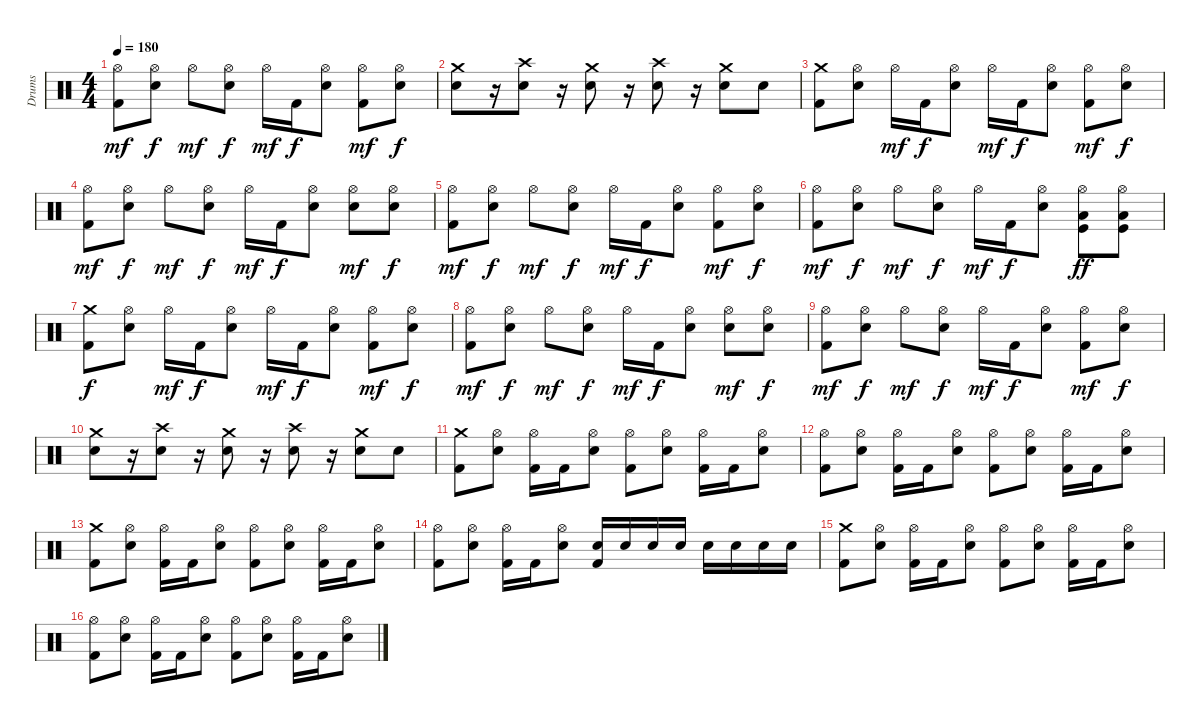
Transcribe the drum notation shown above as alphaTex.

\track ("Drums" "Drums") {instrument percussion}
\staff {score}
\articulation defaults
\ts (4 4)
\tempo 180
\clef neutral
\ks c
("Hi-Hat (open)" "Kick (hit) 2").8{dy mf} ("Hi-Hat (open)" "Electric Snare (hit)").8{dy f} "Hi-Hat (open)".8{dy mf} ("Hi-Hat (open)" "Electric Snare (hit)").8{dy f} "Hi-Hat (open)".16{dy mf} "Kick (hit) 2".16{dy f} ("Hi-Hat (open)" "Electric Snare (hit)").8 ("Hi-Hat (open)" "Kick (hit) 2").8{dy mf} ("Hi-Hat (open)" "Electric Snare (hit)").8{dy f} |
("Crash medium (hit)" "Electric Snare (hit)").8 r.16 ("Crash high (hit)" "Electric Snare (hit)").8 r.16 ("Crash medium (hit)" "Electric Snare (hit)").8 r.16 ("Crash high (hit)" "Electric Snare (hit)").8 r.16 ("Crash medium (hit)" "Electric Snare (hit)").8 "Electric Snare (hit)".8 |
("Crash medium (hit)" "Kick (hit) 2").8 ("Hi-Hat (open)" "Electric Snare (hit)").8 "Hi-Hat (open)".16{dy mf} "Kick (hit) 2".16{dy f} ("Hi-Hat (open)" "Electric Snare (hit)").8 "Hi-Hat (open)".16{dy mf} "Kick (hit) 2".16{dy f} ("Hi-Hat (open)" "Electric Snare (hit)").8 ("Hi-Hat (open)" "Kick (hit) 2").8{dy mf} ("Hi-Hat (open)" "Electric Snare (hit)").8{dy f} |
("Hi-Hat (open)" "Kick (hit) 2").8{dy mf} ("Hi-Hat (open)" "Electric Snare (hit)").8{dy f} "Hi-Hat (open)".8{dy mf} ("Hi-Hat (open)" "Electric Snare (hit)").8{dy f} "Hi-Hat (open)".16{dy mf} "Kick (hit) 2".16{dy f} ("Hi-Hat (open)" "Electric Snare (hit)").8 ("Hi-Hat (open)" "Electric Snare (hit)").8{dy mf} ("Hi-Hat (open)" "Electric Snare (hit)").8{dy f} |
("Hi-Hat (open)" "Kick (hit) 2").8{dy mf} ("Hi-Hat (open)" "Electric Snare (hit)").8{dy f} "Hi-Hat (open)".8{dy mf} ("Hi-Hat (open)" "Electric Snare (hit)").8{dy f} "Hi-Hat (open)".16{dy mf} "Kick (hit) 2".16{dy f} ("Hi-Hat (open)" "Electric Snare (hit)").8 ("Hi-Hat (open)" "Kick (hit) 2").8{dy mf} ("Hi-Hat (open)" "Electric Snare (hit)").8{dy f} |
("Hi-Hat (open)" "Kick (hit) 2").8{dy mf} ("Hi-Hat (open)" "Electric Snare (hit)").8{dy f} "Hi-Hat (open)".8{dy mf} ("Hi-Hat (open)" "Electric Snare (hit)").8{dy f} "Hi-Hat (open)".16{dy mf} "Kick (hit) 2".16{dy f} ("Hi-Hat (open)" "Electric Snare (hit)").8 ("Hi-Hat (open)" "Low Tom (hit)" "Kick (hit)").8{dy ff} ("Hi-Hat (open)" "Low Tom (hit)" "Kick (hit)").8 |
("Crash medium (hit)" "Kick (hit) 2").8{dy f} ("Hi-Hat (open)" "Electric Snare (hit)").8 "Hi-Hat (open)".16{dy mf} "Kick (hit) 2".16{dy f} ("Hi-Hat (open)" "Electric Snare (hit)").8 "Hi-Hat (open)".16{dy mf} "Kick (hit) 2".16{dy f} ("Hi-Hat (open)" "Electric Snare (hit)").8 ("Hi-Hat (open)" "Kick (hit) 2").8{dy mf} ("Hi-Hat (open)" "Electric Snare (hit)").8{dy f} |
("Hi-Hat (open)" "Kick (hit) 2").8{dy mf} ("Hi-Hat (open)" "Electric Snare (hit)").8{dy f} "Hi-Hat (open)".8{dy mf} ("Hi-Hat (open)" "Electric Snare (hit)").8{dy f} "Hi-Hat (open)".16{dy mf} "Kick (hit) 2".16{dy f} ("Hi-Hat (open)" "Electric Snare (hit)").8 ("Hi-Hat (open)" "Electric Snare (hit)").8{dy mf} ("Hi-Hat (open)" "Electric Snare (hit)").8{dy f} |
("Hi-Hat (open)" "Kick (hit) 2").8{dy mf} ("Hi-Hat (open)" "Electric Snare (hit)").8{dy f} "Hi-Hat (open)".8{dy mf} ("Hi-Hat (open)" "Electric Snare (hit)").8{dy f} "Hi-Hat (open)".16{dy mf} "Kick (hit) 2".16{dy f} ("Hi-Hat (open)" "Electric Snare (hit)").8 ("Hi-Hat (open)" "Kick (hit) 2").8{dy mf} ("Hi-Hat (open)" "Electric Snare (hit)").8{dy f} |
("Crash medium (hit)" "Electric Snare (hit)").8 r.16 ("Crash high (hit)" "Electric Snare (hit)").8 r.16 ("Crash medium (hit)" "Electric Snare (hit)").8 r.16 ("Crash high (hit)" "Electric Snare (hit)").8 r.16 ("Crash medium (hit)" "Electric Snare (hit)").8 "Electric Snare (hit)".8 |
("Crash medium (hit)" "Kick (hit) 2").8 ("Hi-Hat (open)" "Electric Snare (hit)").8 ("Hi-Hat (open)" "Kick (hit) 2").16 "Kick (hit) 2".16 ("Hi-Hat (open)" "Electric Snare (hit)").8 ("Hi-Hat (open)" "Kick (hit) 2").8 ("Hi-Hat (open)" "Electric Snare (hit)").8 ("Hi-Hat (open)" "Kick (hit) 2").16 "Kick (hit) 2".16 ("Hi-Hat (open)" "Electric Snare (hit)").8 |
("Hi-Hat (open)" "Kick (hit) 2").8 ("Hi-Hat (open)" "Electric Snare (hit)").8 ("Hi-Hat (open)" "Kick (hit) 2").16 "Kick (hit) 2".16 ("Hi-Hat (open)" "Electric Snare (hit)").8 ("Hi-Hat (open)" "Kick (hit) 2").8 ("Hi-Hat (open)" "Electric Snare (hit)").8 ("Hi-Hat (open)" "Kick (hit) 2").16 "Kick (hit) 2".16 ("Hi-Hat (open)" "Electric Snare (hit)").8 |
("Crash medium (hit)" "Kick (hit) 2").8 ("Hi-Hat (open)" "Electric Snare (hit)").8 ("Hi-Hat (open)" "Kick (hit) 2").16 "Kick (hit) 2".16 ("Hi-Hat (open)" "Electric Snare (hit)").8 ("Hi-Hat (open)" "Kick (hit) 2").8 ("Hi-Hat (open)" "Electric Snare (hit)").8 ("Hi-Hat (open)" "Kick (hit) 2").16 "Kick (hit) 2".16 ("Hi-Hat (open)" "Electric Snare (hit)").8 |
("Hi-Hat (open)" "Kick (hit) 2").8 ("Hi-Hat (open)" "Electric Snare (hit)").8 ("Hi-Hat (open)" "Kick (hit) 2").16 "Kick (hit) 2".16 ("Hi-Hat (open)" "Electric Snare (hit)").8 ("Electric Snare (hit)" "Kick (hit) 2").16 "Electric Snare (hit)".16 "Electric Snare (hit)".16 "Electric Snare (hit)".16 "Electric Snare (hit)".16 "Electric Snare (hit)".16 "Electric Snare (hit)".16 "Electric Snare (hit)".16 |
("Crash medium (hit)" "Kick (hit) 2").8 ("Hi-Hat (open)" "Electric Snare (hit)").8 ("Hi-Hat (open)" "Kick (hit) 2").16 "Kick (hit) 2".16 ("Hi-Hat (open)" "Electric Snare (hit)").8 ("Hi-Hat (open)" "Kick (hit) 2").8 ("Hi-Hat (open)" "Electric Snare (hit)").8 ("Hi-Hat (open)" "Kick (hit) 2").16 "Kick (hit) 2".16 ("Hi-Hat (open)" "Electric Snare (hit)").8 |
("Hi-Hat (open)" "Kick (hit) 2").8 ("Hi-Hat (open)" "Electric Snare (hit)").8 ("Hi-Hat (open)" "Kick (hit) 2").16 "Kick (hit) 2".16 ("Hi-Hat (open)" "Electric Snare (hit)").8 ("Hi-Hat (open)" "Kick (hit) 2").8 ("Hi-Hat (open)" "Electric Snare (hit)").8 ("Hi-Hat (open)" "Kick (hit) 2").16 "Kick (hit) 2".16 ("Hi-Hat (open)" "Electric Snare (hit)").8
